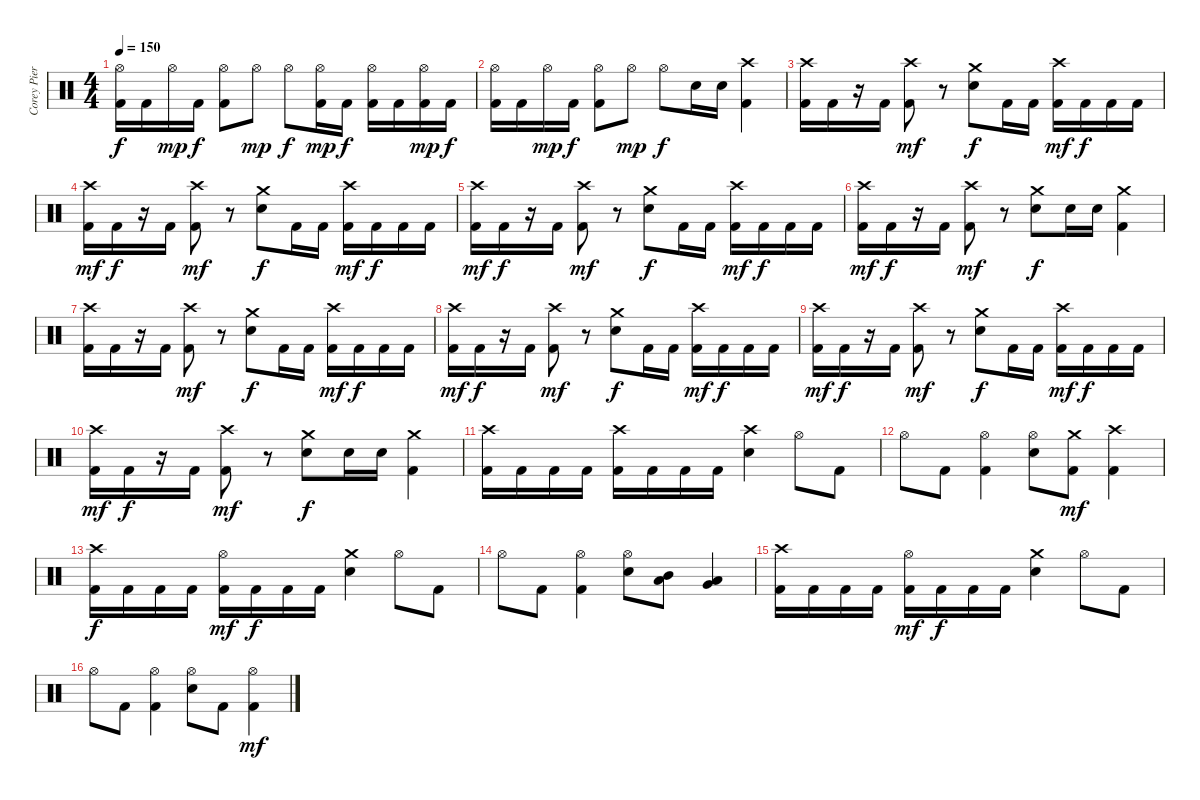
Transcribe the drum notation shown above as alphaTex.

\track ("Corey Pierce" "Corey Pier") {instrument percussion}
\staff {score}
\articulation defaults
\ts (4 4)
\tempo 150
\clef neutral
\ks c
("Hi-Hat (open)" "Kick (hit) 2").16{dy f} "Kick (hit) 2".16 "Hi-Hat (open)".16{dy mp} "Kick (hit) 2".16{dy f} ("Hi-Hat (open)" "Kick (hit) 2").8 "Hi-Hat (open)".8{dy mp} "Hi-Hat (open)".8{dy f} ("Hi-Hat (open)" "Kick (hit) 2").16{dy mp} "Kick (hit) 2".16{dy f} ("Hi-Hat (open)" "Kick (hit) 2").16 "Kick (hit) 2".16 ("Hi-Hat (open)" "Kick (hit) 2").16{dy mp} "Kick (hit) 2".16{dy f} |
("Hi-Hat (open)" "Kick (hit) 2").16 "Kick (hit) 2".16 "Hi-Hat (open)".16{dy mp} "Kick (hit) 2".16{dy f} ("Hi-Hat (open)" "Kick (hit) 2").8 "Hi-Hat (open)".8{dy mp} "Hi-Hat (open)".8{dy f} "Electric Snare (hit)".16 "Electric Snare (hit)".16 ("Crash high (hit)" "Kick (hit) 2").4 |
("Crash high (hit)" "Kick (hit) 2").16 "Kick (hit) 2".16 r.16 "Kick (hit) 2".16 ("Crash high (hit)" "Kick (hit) 2").8{dy mf} r.8 ("Crash medium (hit)" "Electric Snare (hit)").8{dy f} "Kick (hit) 2".16 "Kick (hit) 2".16 ("Crash high (hit)" "Kick (hit) 2").16{dy mf} "Kick (hit) 2".16{dy f} "Kick (hit) 2".16 "Kick (hit) 2".16 |
("Crash high (hit)" "Kick (hit) 2").16{dy mf} "Kick (hit) 2".16{dy f} r.16 "Kick (hit) 2".16 ("Crash high (hit)" "Kick (hit) 2").8{dy mf} r.8 ("Crash medium (hit)" "Electric Snare (hit)").8{dy f} "Kick (hit) 2".16 "Kick (hit) 2".16 ("Crash high (hit)" "Kick (hit) 2").16{dy mf} "Kick (hit) 2".16{dy f} "Kick (hit) 2".16 "Kick (hit) 2".16 |
("Crash high (hit)" "Kick (hit) 2").16{dy mf} "Kick (hit) 2".16{dy f} r.16 "Kick (hit) 2".16 ("Crash high (hit)" "Kick (hit) 2").8{dy mf} r.8 ("Crash medium (hit)" "Electric Snare (hit)").8{dy f} "Kick (hit) 2".16 "Kick (hit) 2".16 ("Crash high (hit)" "Kick (hit) 2").16{dy mf} "Kick (hit) 2".16{dy f} "Kick (hit) 2".16 "Kick (hit) 2".16 |
("Crash high (hit)" "Kick (hit) 2").16{dy mf} "Kick (hit) 2".16{dy f} r.16 "Kick (hit) 2".16 ("Crash high (hit)" "Kick (hit) 2").8{dy mf} r.8 ("Crash medium (hit)" "Electric Snare (hit)").8{dy f} "Electric Snare (hit)".16 "Electric Snare (hit)".16 ("Crash medium (hit)" "Kick (hit) 2").4 |
("Crash high (hit)" "Kick (hit) 2").16 "Kick (hit) 2".16 r.16 "Kick (hit) 2".16 ("Crash high (hit)" "Kick (hit) 2").8{dy mf} r.8 ("Crash medium (hit)" "Electric Snare (hit)").8{dy f} "Kick (hit) 2".16 "Kick (hit) 2".16 ("Crash high (hit)" "Kick (hit) 2").16{dy mf} "Kick (hit) 2".16{dy f} "Kick (hit) 2".16 "Kick (hit) 2".16 |
("Crash high (hit)" "Kick (hit) 2").16{dy mf} "Kick (hit) 2".16{dy f} r.16 "Kick (hit) 2".16 ("Crash high (hit)" "Kick (hit) 2").8{dy mf} r.8 ("Crash medium (hit)" "Electric Snare (hit)").8{dy f} "Kick (hit) 2".16 "Kick (hit) 2".16 ("Crash high (hit)" "Kick (hit) 2").16{dy mf} "Kick (hit) 2".16{dy f} "Kick (hit) 2".16 "Kick (hit) 2".16 |
("Crash high (hit)" "Kick (hit) 2").16{dy mf} "Kick (hit) 2".16{dy f} r.16 "Kick (hit) 2".16 ("Crash high (hit)" "Kick (hit) 2").8{dy mf} r.8 ("Crash medium (hit)" "Electric Snare (hit)").8{dy f} "Kick (hit) 2".16 "Kick (hit) 2".16 ("Crash high (hit)" "Kick (hit) 2").16{dy mf} "Kick (hit) 2".16{dy f} "Kick (hit) 2".16 "Kick (hit) 2".16 |
("Crash high (hit)" "Kick (hit) 2").16{dy mf} "Kick (hit) 2".16{dy f} r.16 "Kick (hit) 2".16 ("Crash high (hit)" "Kick (hit) 2").8{dy mf} r.8 ("Crash medium (hit)" "Electric Snare (hit)").8{dy f} "Electric Snare (hit)".16 "Electric Snare (hit)".16 ("Crash medium (hit)" "Kick (hit) 2").4 |
("Crash high (hit)" "Kick (hit) 2").16 "Kick (hit) 2".16 "Kick (hit) 2".16 "Kick (hit) 2".16 ("Crash high (hit)" "Kick (hit) 2").16 "Kick (hit) 2".16 "Kick (hit) 2".16 "Kick (hit) 2".16 ("Crash high (hit)" "Electric Snare (hit)").4 "Hi-Hat (open)".8 "Kick (hit) 2".8 |
"Hi-Hat (open)".8 "Kick (hit) 2".8 ("Hi-Hat (open)" "Kick (hit) 2").4 ("Hi-Hat (open)" "Electric Snare (hit)").8 ("Crash medium (hit)" "Kick (hit) 2").8{dy mf} ("Crash high (hit)" "Kick (hit) 2").4 |
("Crash high (hit)" "Kick (hit) 2").16{dy f} "Kick (hit) 2".16 "Kick (hit) 2".16 "Kick (hit) 2".16 ("Hi-Hat (open)" "Kick (hit) 2").16{dy mf} "Kick (hit) 2".16{dy f} "Kick (hit) 2".16 "Kick (hit) 2".16 ("Crash medium (hit)" "Electric Snare (hit)").4 "Hi-Hat (open)".8 "Kick (hit) 2".8 |
"Hi-Hat (open)".8 "Kick (hit) 2".8 ("Hi-Hat (open)" "Kick (hit) 2").4 ("Hi-Hat (open)" "Electric Snare (hit)").8 ("Mid Tom (hit)" "Low Tom (hit)").8 ("Low Tom (hit)" "Very Low Tom (hit)").4 |
("Crash high (hit)" "Kick (hit) 2").16 "Kick (hit) 2".16 "Kick (hit) 2".16 "Kick (hit) 2".16 ("Hi-Hat (open)" "Kick (hit) 2").16{dy mf} "Kick (hit) 2".16{dy f} "Kick (hit) 2".16 "Kick (hit) 2".16 ("Crash medium (hit)" "Electric Snare (hit)").4 "Hi-Hat (open)".8 "Kick (hit) 2".8 |
"Hi-Hat (open)".8 "Kick (hit) 2".8 ("Hi-Hat (open)" "Kick (hit) 2").4 ("Hi-Hat (open)" "Electric Snare (hit)").8 "Kick (hit) 2".8 ("Hi-Hat (open)" "Kick (hit) 2").4{dy mf}
